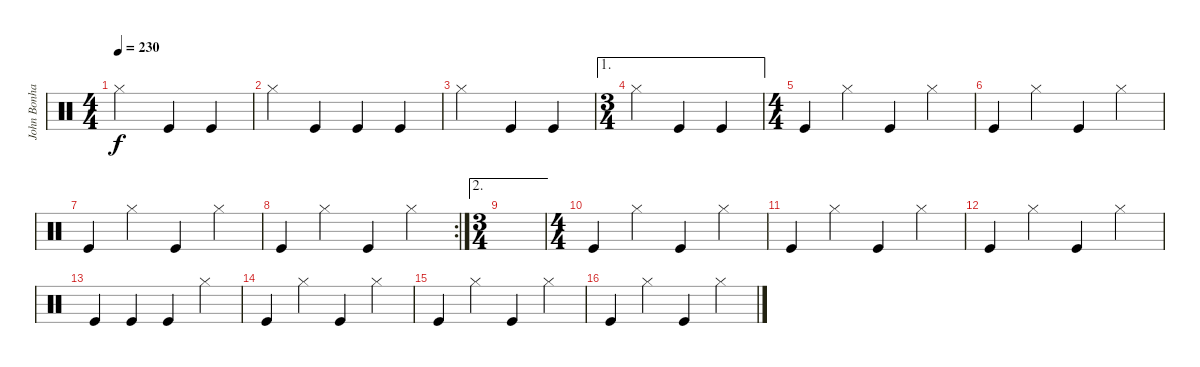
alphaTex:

\track ("John Bonham" "John Bonha") {instrument percussion}
\staff {score}
\articulation defaults
\ts (4 4)
\tempo 230
\clef neutral
\ks c "Hi-Hat (closed)".2{dy f} "Kick (hit)".4 "Kick (hit)".4
|
"Hi-Hat (closed)".4 "Kick (hit)".4 "Kick (hit)".4 "Kick (hit)".4 |
"Hi-Hat (closed)".2 "Kick (hit)".4 "Kick (hit)".4 |
\ae 1
\ts (3 4)
"Hi-Hat (closed)".4 "Kick (hit)".4 "Kick (hit)".4 |
\ts (4 4)
"Kick (hit)".4 "Hi-Hat (closed)".4 "Kick (hit)".4 "Hi-Hat (closed)".4 |
"Kick (hit)".4 "Hi-Hat (closed)".4 "Kick (hit)".4 "Hi-Hat (closed)".4 |
"Kick (hit)".4 "Hi-Hat (closed)".4 "Kick (hit)".4 "Hi-Hat (closed)".4 |
\rc 2 "Kick (hit)".4 "Hi-Hat (closed)".4 "Kick (hit)".4 "Hi-Hat (closed)".4
|
\ae 2
\ts (3 4)
|
\ts (4 4)
"Kick (hit)".4 "Hi-Hat (closed)".4 "Kick (hit)".4 "Hi-Hat (closed)".4 |
"Kick (hit)".4 "Hi-Hat (closed)".4 "Kick (hit)".4 "Hi-Hat (closed)".4 |
"Kick (hit)".4 "Hi-Hat (closed)".4 "Kick (hit)".4 "Hi-Hat (closed)".4 |
"Kick (hit)".4 "Kick (hit)".4 "Kick (hit)".4 "Hi-Hat (closed)".4 |
"Kick (hit)".4 "Hi-Hat (closed)".4 "Kick (hit)".4 "Hi-Hat (closed)".4 |
"Kick (hit)".4 "Hi-Hat (closed)".4 "Kick (hit)".4 "Hi-Hat (closed)".4 |
"Kick (hit)".4 "Hi-Hat (closed)".4 "Kick (hit)".4 "Hi-Hat (closed)".4
